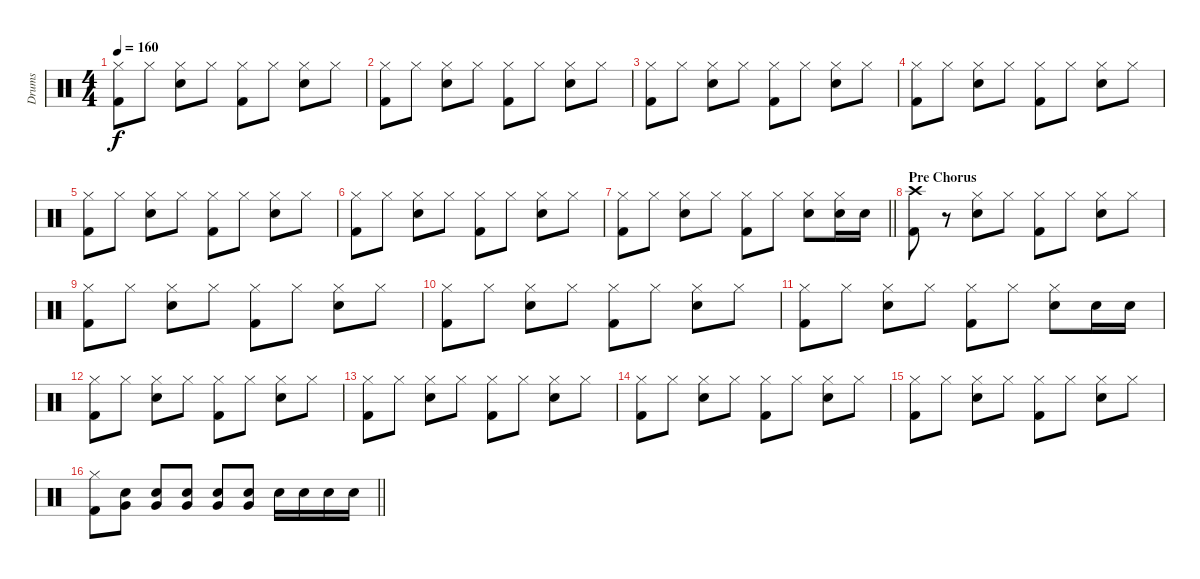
\track ("Drums" "Drums") {instrument percussion}
\staff {score}
\articulation defaults
\ts (4 4)
\tempo 160
\clef neutral
\ks c
("Hi-Hat (closed)" "Kick (hit) 2").8{dy f} "Hi-Hat (closed)".8 ("Hi-Hat (closed)" "Electric Snare (hit)").8 "Hi-Hat (closed)".8 ("Hi-Hat (closed)" "Kick (hit) 2").8 "Hi-Hat (closed)".8 ("Hi-Hat (closed)" "Electric Snare (hit)").8 "Hi-Hat (closed)".8 |
("Hi-Hat (closed)" "Kick (hit) 2").8 "Hi-Hat (closed)".8 ("Hi-Hat (closed)" "Electric Snare (hit)").8 "Hi-Hat (closed)".8 ("Hi-Hat (closed)" "Kick (hit) 2").8 "Hi-Hat (closed)".8 ("Hi-Hat (closed)" "Electric Snare (hit)").8 "Hi-Hat (closed)".8 |
("Hi-Hat (closed)" "Kick (hit) 2").8 "Hi-Hat (closed)".8 ("Hi-Hat (closed)" "Electric Snare (hit)").8 "Hi-Hat (closed)".8 ("Hi-Hat (closed)" "Kick (hit) 2").8 "Hi-Hat (closed)".8 ("Hi-Hat (closed)" "Electric Snare (hit)").8 "Hi-Hat (closed)".8 |
("Hi-Hat (closed)" "Kick (hit) 2").8 "Hi-Hat (closed)".8 ("Hi-Hat (closed)" "Electric Snare (hit)").8 "Hi-Hat (closed)".8 ("Hi-Hat (closed)" "Kick (hit) 2").8 "Hi-Hat (closed)".8 ("Hi-Hat (closed)" "Electric Snare (hit)").8 "Hi-Hat (closed)".8 |
("Hi-Hat (closed)" "Kick (hit) 2").8 "Hi-Hat (closed)".8 ("Hi-Hat (closed)" "Electric Snare (hit)").8 "Hi-Hat (closed)".8 ("Hi-Hat (closed)" "Kick (hit) 2").8 "Hi-Hat (closed)".8 ("Hi-Hat (closed)" "Electric Snare (hit)").8 "Hi-Hat (closed)".8 |
("Hi-Hat (closed)" "Kick (hit) 2").8 "Hi-Hat (closed)".8 ("Hi-Hat (closed)" "Electric Snare (hit)").8 "Hi-Hat (closed)".8 ("Hi-Hat (closed)" "Kick (hit) 2").8 "Hi-Hat (closed)".8 ("Hi-Hat (closed)" "Electric Snare (hit)").8 "Hi-Hat (closed)".8 |
\barLineRight lightlight
("Hi-Hat (closed)" "Kick (hit) 2").8 "Hi-Hat (closed)".8 ("Hi-Hat (closed)" "Electric Snare (hit)").8 "Hi-Hat (closed)".8 ("Hi-Hat (closed)" "Kick (hit) 2").8 "Hi-Hat (closed)".8 ("Hi-Hat (closed)" "Electric Snare (hit)").8 ("Hi-Hat (closed)" "Electric Snare (hit)").16 "Electric Snare (hit)".16 |
\section ("" "Pre Chorus")
("Crash high (hit)" "Kick (hit) 2").8 r.8 ("Hi-Hat (closed)" "Electric Snare (hit)").8 "Hi-Hat (closed)".8 ("Hi-Hat (closed)" "Kick (hit) 2").8 "Hi-Hat (closed)".8 ("Hi-Hat (closed)" "Electric Snare (hit)").8 "Hi-Hat (closed)".8 |
("Hi-Hat (closed)" "Kick (hit) 2").8 "Hi-Hat (closed)".8 ("Hi-Hat (closed)" "Electric Snare (hit)").8 "Hi-Hat (closed)".8 ("Hi-Hat (closed)" "Kick (hit) 2").8 "Hi-Hat (closed)".8 ("Hi-Hat (closed)" "Electric Snare (hit)").8 "Hi-Hat (closed)".8 |
("Hi-Hat (closed)" "Kick (hit) 2").8 "Hi-Hat (closed)".8 ("Hi-Hat (closed)" "Electric Snare (hit)").8 "Hi-Hat (closed)".8 ("Hi-Hat (closed)" "Kick (hit) 2").8 "Hi-Hat (closed)".8 ("Hi-Hat (closed)" "Electric Snare (hit)").8 "Hi-Hat (closed)".8 |
("Hi-Hat (closed)" "Kick (hit) 2").8 "Hi-Hat (closed)".8 ("Hi-Hat (closed)" "Electric Snare (hit)").8 "Hi-Hat (closed)".8 ("Hi-Hat (closed)" "Kick (hit) 2").8 "Hi-Hat (closed)".8 ("Hi-Hat (closed)" "Electric Snare (hit)").8 "Electric Snare (hit)".16 "Electric Snare (hit)".16 |
("Hi-Hat (closed)" "Kick (hit) 2").8 "Hi-Hat (closed)".8 ("Hi-Hat (closed)" "Electric Snare (hit)").8 "Hi-Hat (closed)".8 ("Hi-Hat (closed)" "Kick (hit) 2").8 "Hi-Hat (closed)".8 ("Hi-Hat (closed)" "Electric Snare (hit)").8 "Hi-Hat (closed)".8 |
("Hi-Hat (closed)" "Kick (hit) 2").8 "Hi-Hat (closed)".8 ("Hi-Hat (closed)" "Electric Snare (hit)").8 "Hi-Hat (closed)".8 ("Hi-Hat (closed)" "Kick (hit) 2").8 "Hi-Hat (closed)".8 ("Hi-Hat (closed)" "Electric Snare (hit)").8 "Hi-Hat (closed)".8 |
("Hi-Hat (closed)" "Kick (hit) 2").8 "Hi-Hat (closed)".8 ("Hi-Hat (closed)" "Electric Snare (hit)").8 "Hi-Hat (closed)".8 ("Hi-Hat (closed)" "Kick (hit) 2").8 "Hi-Hat (closed)".8 ("Hi-Hat (closed)" "Electric Snare (hit)").8 "Hi-Hat (closed)".8 |
("Hi-Hat (closed)" "Kick (hit) 2").8 "Hi-Hat (closed)".8 ("Hi-Hat (closed)" "Electric Snare (hit)").8 "Hi-Hat (closed)".8 ("Hi-Hat (closed)" "Kick (hit) 2").8 "Hi-Hat (closed)".8 ("Hi-Hat (closed)" "Electric Snare (hit)").8 "Hi-Hat (closed)".8 |
\barLineRight lightlight
("Hi-Hat (closed)" "Kick (hit) 2").8 ("Electric Snare (hit)" "Very Low Tom (hit)").8 ("Electric Snare (hit)" "Very Low Tom (hit)").8 ("Electric Snare (hit)" "Very Low Tom (hit)").8 ("Electric Snare (hit)" "Very Low Tom (hit)").8 ("Electric Snare (hit)" "Very Low Tom (hit)").8 "Electric Snare (hit)".16 "Electric Snare (hit)".16 "Electric Snare (hit)".16 "Electric Snare (hit)".16
